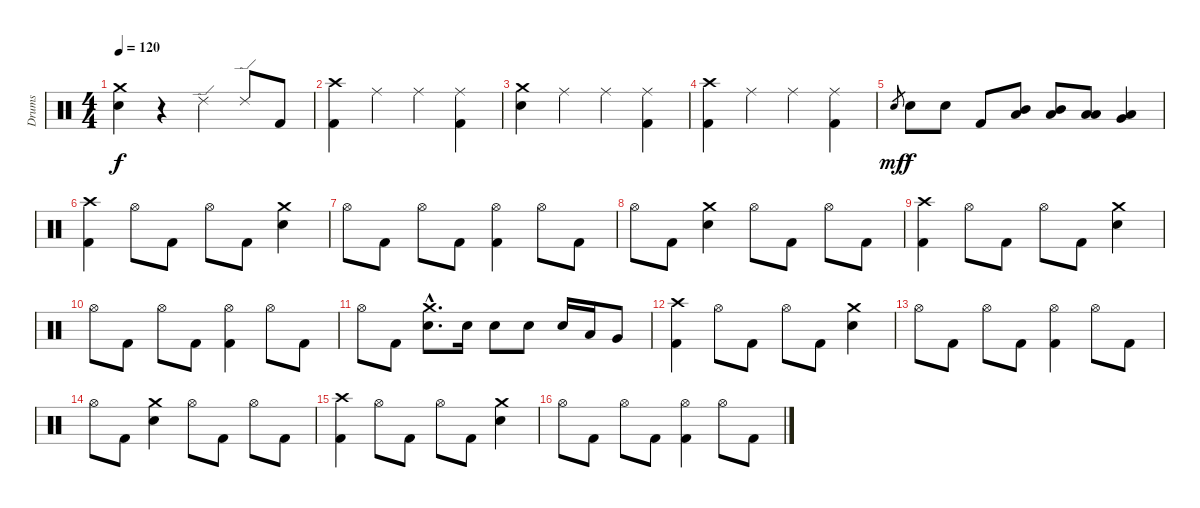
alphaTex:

\track ("Drums" "Drums") {instrument percussion}
\staff {score}
\articulation defaults
\ts (4 4)
\tempo 120
\clef neutral
\ks c
("Crash medium (hit)" "Snare (hit) 2").4{dy f} r.4 "Ride (edge) 2".4 "Ride (edge) 2".8 "Kick (hit) 2".8 |
("Crash high (hit)" "Kick (hit) 2").4 "Ride (middle)".4 "Ride (middle)".4 ("Ride (middle)" "Kick (hit) 2").4 |
("Crash medium (hit)" "Snare (hit) 2").4 "Ride (middle)".4 "Ride (middle)".4 ("Ride (middle)" "Kick (hit) 2").4 |
("Crash high (hit)" "Kick (hit) 2").4 "Ride (middle)".4 "Ride (middle)".4 ("Ride (middle)" "Kick (hit) 2").4 |
"Snare (hit) 2".8{gr dy mf} "Snare (hit) 2".8{dy f} "Snare (hit) 2".8 "Kick (hit) 2".8 ("Mid Tom (hit)" "Low Floor Tom (hit)").8 ("Mid Tom (hit)" "Low Floor Tom (hit)").8 ("Low Tom (hit)" "Low Floor Tom (hit)").8 ("Very Low Tom (hit)" "Low Floor Tom (hit)").4 |
("Crash high (hit)" "Kick (hit) 2").4 "Hi-Hat (open)".8 "Kick (hit) 2".8 "Hi-Hat (open)".8 "Kick (hit) 2".8 ("Crash medium (hit)" "Snare (hit) 2").4 |
"Hi-Hat (open)".8 "Kick (hit) 2".8 "Hi-Hat (open)".8 "Kick (hit) 2".8 ("Hi-Hat (open)" "Kick (hit) 2").4 "Hi-Hat (open)".8 "Kick (hit) 2".8 |
"Hi-Hat (open)".8 "Kick (hit) 2".8 ("Crash medium (hit)" "Snare (hit) 2").4 "Hi-Hat (open)".8 "Kick (hit) 2".8 "Hi-Hat (open)".8 "Kick (hit) 2".8 |
("Crash high (hit)" "Kick (hit) 2").4 "Hi-Hat (open)".8 "Kick (hit) 2".8 "Hi-Hat (open)".8 "Kick (hit) 2".8 ("Crash medium (hit)" "Snare (hit) 2").4 |
"Hi-Hat (open)".8 "Kick (hit) 2".8 "Hi-Hat (open)".8 "Kick (hit) 2".8 ("Hi-Hat (open)" "Kick (hit) 2").4 "Hi-Hat (open)".8 "Kick (hit) 2".8 |
"Hi-Hat (open)".8 "Kick (hit) 2".8 ("Crash medium (hit)"{hac} "Snare (hit) 2"{hac}).8{d} "Snare (hit) 2".16 "Snare (hit) 2".8 "Snare (hit) 2".8 "Snare (hit) 2".16 "Low Tom (hit)".16 "Very Low Tom (hit)".8 |
("Crash high (hit)" "Kick (hit) 2").4 "Hi-Hat (open)".8 "Kick (hit) 2".8 "Hi-Hat (open)".8 "Kick (hit) 2".8 ("Crash medium (hit)" "Snare (hit) 2").4 |
"Hi-Hat (open)".8 "Kick (hit) 2".8 "Hi-Hat (open)".8 "Kick (hit) 2".8 ("Hi-Hat (open)" "Kick (hit) 2").4 "Hi-Hat (open)".8 "Kick (hit) 2".8 |
"Hi-Hat (open)".8 "Kick (hit) 2".8 ("Crash medium (hit)" "Snare (hit) 2").4 "Hi-Hat (open)".8 "Kick (hit) 2".8 "Hi-Hat (open)".8 "Kick (hit) 2".8 |
("Crash high (hit)" "Kick (hit) 2").4 "Hi-Hat (open)".8 "Kick (hit) 2".8 "Hi-Hat (open)".8 "Kick (hit) 2".8 ("Crash medium (hit)" "Snare (hit) 2").4 |
"Hi-Hat (open)".8 "Kick (hit) 2".8 "Hi-Hat (open)".8 "Kick (hit) 2".8 ("Hi-Hat (open)" "Kick (hit) 2").4 "Hi-Hat (open)".8 "Kick (hit) 2".8
